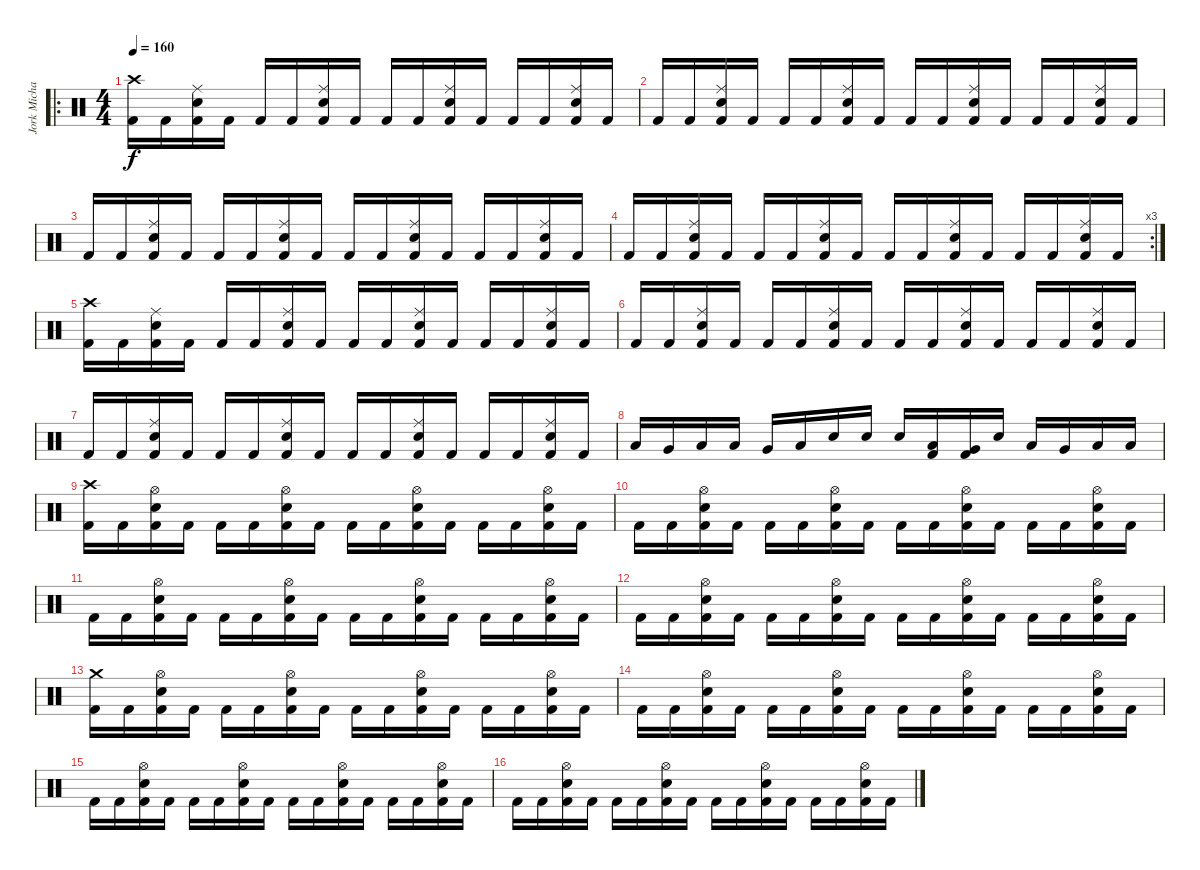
\track ("Jork Michael" "Jork Micha") {instrument percussion}
\staff {score}
\articulation defaults
\ro
\ts (4 4)
\tempo 160
\clef neutral
\ks c
("Crash high (hit)" "Kick (hit) 2").16{dy f} "Kick (hit) 2".16 ("Ride (middle)" "Electric Snare (hit)" "Kick (hit) 2").16 "Kick (hit) 2".16 "Kick (hit) 2".16 "Kick (hit) 2".16 ("Ride (middle)" "Electric Snare (hit)" "Kick (hit) 2").16 "Kick (hit) 2".16 "Kick (hit) 2".16 "Kick (hit) 2".16 ("Ride (middle)" "Electric Snare (hit)" "Kick (hit) 2").16 "Kick (hit) 2".16 "Kick (hit) 2".16 "Kick (hit) 2".16 ("Ride (middle)" "Electric Snare (hit)" "Kick (hit) 2").16 "Kick (hit) 2".16 |
"Kick (hit) 2".16 "Kick (hit) 2".16 ("Ride (middle)" "Electric Snare (hit)" "Kick (hit) 2").16 "Kick (hit) 2".16 "Kick (hit) 2".16 "Kick (hit) 2".16 ("Ride (middle)" "Electric Snare (hit)" "Kick (hit) 2").16 "Kick (hit) 2".16 "Kick (hit) 2".16 "Kick (hit) 2".16 ("Ride (middle)" "Electric Snare (hit)" "Kick (hit) 2").16 "Kick (hit) 2".16 "Kick (hit) 2".16 "Kick (hit) 2".16 ("Ride (middle)" "Electric Snare (hit)" "Kick (hit) 2").16 "Kick (hit) 2".16 |
"Kick (hit) 2".16 "Kick (hit) 2".16 ("Ride (middle)" "Electric Snare (hit)" "Kick (hit) 2").16 "Kick (hit) 2".16 "Kick (hit) 2".16 "Kick (hit) 2".16 ("Ride (middle)" "Electric Snare (hit)" "Kick (hit) 2").16 "Kick (hit) 2".16 "Kick (hit) 2".16 "Kick (hit) 2".16 ("Ride (middle)" "Electric Snare (hit)" "Kick (hit) 2").16 "Kick (hit) 2".16 "Kick (hit) 2".16 "Kick (hit) 2".16 ("Ride (middle)" "Electric Snare (hit)" "Kick (hit) 2").16 "Kick (hit) 2".16 |
\rc 3 "Kick (hit) 2".16 "Kick (hit) 2".16
("Ride (middle)" "Electric Snare (hit)" "Kick (hit) 2").16 "Kick (hit) 2".16 "Kick (hit) 2".16 "Kick (hit) 2".16 ("Ride (middle)" "Electric Snare (hit)" "Kick (hit) 2").16 "Kick (hit) 2".16 "Kick (hit) 2".16 "Kick (hit) 2".16 ("Ride (middle)" "Electric Snare (hit)" "Kick (hit) 2").16 "Kick (hit) 2".16 "Kick (hit) 2".16 "Kick (hit) 2".16 ("Ride (middle)" "Electric Snare (hit)" "Kick (hit) 2").16 "Kick (hit) 2".16 |
("Crash high (hit)" "Kick (hit) 2").16 "Kick (hit) 2".16 ("Ride (middle)" "Electric Snare (hit)" "Kick (hit) 2").16 "Kick (hit) 2".16 "Kick (hit) 2".16 "Kick (hit) 2".16 ("Ride (middle)" "Electric Snare (hit)" "Kick (hit) 2").16 "Kick (hit) 2".16 "Kick (hit) 2".16 "Kick (hit) 2".16 ("Ride (middle)" "Electric Snare (hit)" "Kick (hit) 2").16 "Kick (hit) 2".16 "Kick (hit) 2".16 "Kick (hit) 2".16 ("Ride (middle)" "Electric Snare (hit)" "Kick (hit) 2").16 "Kick (hit) 2".16 |
"Kick (hit) 2".16 "Kick (hit) 2".16 ("Ride (middle)" "Electric Snare (hit)" "Kick (hit) 2").16 "Kick (hit) 2".16 "Kick (hit) 2".16 "Kick (hit) 2".16 ("Ride (middle)" "Electric Snare (hit)" "Kick (hit) 2").16 "Kick (hit) 2".16 "Kick (hit) 2".16 "Kick (hit) 2".16 ("Ride (middle)" "Electric Snare (hit)" "Kick (hit) 2").16 "Kick (hit) 2".16 "Kick (hit) 2".16 "Kick (hit) 2".16 ("Ride (middle)" "Electric Snare (hit)" "Kick (hit) 2").16 "Kick (hit) 2".16 |
"Kick (hit) 2".16 "Kick (hit) 2".16 ("Ride (middle)" "Electric Snare (hit)" "Kick (hit) 2").16 "Kick (hit) 2".16 "Kick (hit) 2".16 "Kick (hit) 2".16 ("Ride (middle)" "Electric Snare (hit)" "Kick (hit) 2").16 "Kick (hit) 2".16 "Kick (hit) 2".16 "Kick (hit) 2".16 ("Ride (middle)" "Electric Snare (hit)" "Kick (hit) 2").16 "Kick (hit) 2".16 "Kick (hit) 2".16 "Kick (hit) 2".16 ("Ride (middle)" "Electric Snare (hit)" "Kick (hit) 2").16 "Kick (hit) 2".16 |
"Low Floor Tom (hit)".16 "Very Low Tom (hit)".16 "Low Floor Tom (hit)".16 "Low Tom (hit)".16 "Very Low Tom (hit)".16 "Low Floor Tom (hit)".16 "Electric Snare (hit)".16 "Electric Snare (hit)".16 "Electric Snare (hit)".16 ("Low Tom (hit)" "Kick (hit) 2").16 ("Very Low Tom (hit)" "Kick (hit) 2").16 "Electric Snare (hit)".16 "Low Floor Tom (hit)".16 "Very Low Tom (hit)".16 "Low Tom (hit)".16 "Low Floor Tom (hit)".16 |
("Crash high (hit)" "Kick (hit) 2").16 "Kick (hit) 2".16 ("Hi-Hat (open)" "Electric Snare (hit)" "Kick (hit) 2").16 "Kick (hit) 2".16 "Kick (hit) 2".16 "Kick (hit) 2".16 ("Hi-Hat (open)" "Electric Snare (hit)" "Kick (hit) 2").16 "Kick (hit) 2".16 "Kick (hit) 2".16 "Kick (hit) 2".16 ("Hi-Hat (open)" "Electric Snare (hit)" "Kick (hit) 2").16 "Kick (hit) 2".16 "Kick (hit) 2".16 "Kick (hit) 2".16 ("Hi-Hat (open)" "Electric Snare (hit)" "Kick (hit) 2").16 "Kick (hit) 2".16 |
"Kick (hit) 2".16 "Kick (hit) 2".16 ("Hi-Hat (open)" "Electric Snare (hit)" "Kick (hit) 2").16 "Kick (hit) 2".16 "Kick (hit) 2".16 "Kick (hit) 2".16 ("Hi-Hat (open)" "Electric Snare (hit)" "Kick (hit) 2").16 "Kick (hit) 2".16 "Kick (hit) 2".16 "Kick (hit) 2".16 ("Hi-Hat (open)" "Electric Snare (hit)" "Kick (hit) 2").16 "Kick (hit) 2".16 "Kick (hit) 2".16 "Kick (hit) 2".16 ("Hi-Hat (open)" "Electric Snare (hit)" "Kick (hit) 2").16 "Kick (hit) 2".16 |
"Kick (hit) 2".16 "Kick (hit) 2".16 ("Hi-Hat (open)" "Electric Snare (hit)" "Kick (hit) 2").16 "Kick (hit) 2".16 "Kick (hit) 2".16 "Kick (hit) 2".16 ("Hi-Hat (open)" "Electric Snare (hit)" "Kick (hit) 2").16 "Kick (hit) 2".16 "Kick (hit) 2".16 "Kick (hit) 2".16 ("Hi-Hat (open)" "Electric Snare (hit)" "Kick (hit) 2").16 "Kick (hit) 2".16 "Kick (hit) 2".16 "Kick (hit) 2".16 ("Hi-Hat (open)" "Electric Snare (hit)" "Kick (hit) 2").16 "Kick (hit) 2".16 |
"Kick (hit) 2".16 "Kick (hit) 2".16 ("Hi-Hat (open)" "Electric Snare (hit)" "Kick (hit) 2").16 "Kick (hit) 2".16 "Kick (hit) 2".16 "Kick (hit) 2".16 ("Hi-Hat (open)" "Electric Snare (hit)" "Kick (hit) 2").16 "Kick (hit) 2".16 "Kick (hit) 2".16 "Kick (hit) 2".16 ("Hi-Hat (open)" "Electric Snare (hit)" "Kick (hit) 2").16 "Kick (hit) 2".16 "Kick (hit) 2".16 "Kick (hit) 2".16 ("Hi-Hat (open)" "Electric Snare (hit)" "Kick (hit) 2").16 "Kick (hit) 2".16 |
("Crash medium (hit)" "Kick (hit) 2").16 "Kick (hit) 2".16 ("Hi-Hat (open)" "Electric Snare (hit)" "Kick (hit) 2").16 "Kick (hit) 2".16 "Kick (hit) 2".16 "Kick (hit) 2".16 ("Hi-Hat (open)" "Electric Snare (hit)" "Kick (hit) 2").16 "Kick (hit) 2".16 "Kick (hit) 2".16 "Kick (hit) 2".16 ("Hi-Hat (open)" "Electric Snare (hit)" "Kick (hit) 2").16 "Kick (hit) 2".16 "Kick (hit) 2".16 "Kick (hit) 2".16 ("Hi-Hat (open)" "Electric Snare (hit)" "Kick (hit) 2").16 "Kick (hit) 2".16 |
"Kick (hit) 2".16 "Kick (hit) 2".16 ("Hi-Hat (open)" "Electric Snare (hit)" "Kick (hit) 2").16 "Kick (hit) 2".16 "Kick (hit) 2".16 "Kick (hit) 2".16 ("Hi-Hat (open)" "Electric Snare (hit)" "Kick (hit) 2").16 "Kick (hit) 2".16 "Kick (hit) 2".16 "Kick (hit) 2".16 ("Hi-Hat (open)" "Electric Snare (hit)" "Kick (hit) 2").16 "Kick (hit) 2".16 "Kick (hit) 2".16 "Kick (hit) 2".16 ("Hi-Hat (open)" "Electric Snare (hit)" "Kick (hit) 2").16 "Kick (hit) 2".16 |
"Kick (hit) 2".16 "Kick (hit) 2".16 ("Hi-Hat (open)" "Electric Snare (hit)" "Kick (hit) 2").16 "Kick (hit) 2".16 "Kick (hit) 2".16 "Kick (hit) 2".16 ("Hi-Hat (open)" "Electric Snare (hit)" "Kick (hit) 2").16 "Kick (hit) 2".16 "Kick (hit) 2".16 "Kick (hit) 2".16 ("Hi-Hat (open)" "Electric Snare (hit)" "Kick (hit) 2").16 "Kick (hit) 2".16 "Kick (hit) 2".16 "Kick (hit) 2".16 ("Hi-Hat (open)" "Electric Snare (hit)" "Kick (hit) 2").16 "Kick (hit) 2".16 |
"Kick (hit) 2".16 "Kick (hit) 2".16 ("Hi-Hat (open)" "Electric Snare (hit)" "Kick (hit) 2").16 "Kick (hit) 2".16 "Kick (hit) 2".16 "Kick (hit) 2".16 ("Hi-Hat (open)" "Electric Snare (hit)" "Kick (hit) 2").16 "Kick (hit) 2".16 "Kick (hit) 2".16 "Kick (hit) 2".16 ("Hi-Hat (open)" "Electric Snare (hit)" "Kick (hit) 2").16 "Kick (hit) 2".16 "Kick (hit) 2".16 "Kick (hit) 2".16 ("Hi-Hat (open)" "Electric Snare (hit)" "Kick (hit) 2").16 "Kick (hit) 2".16
